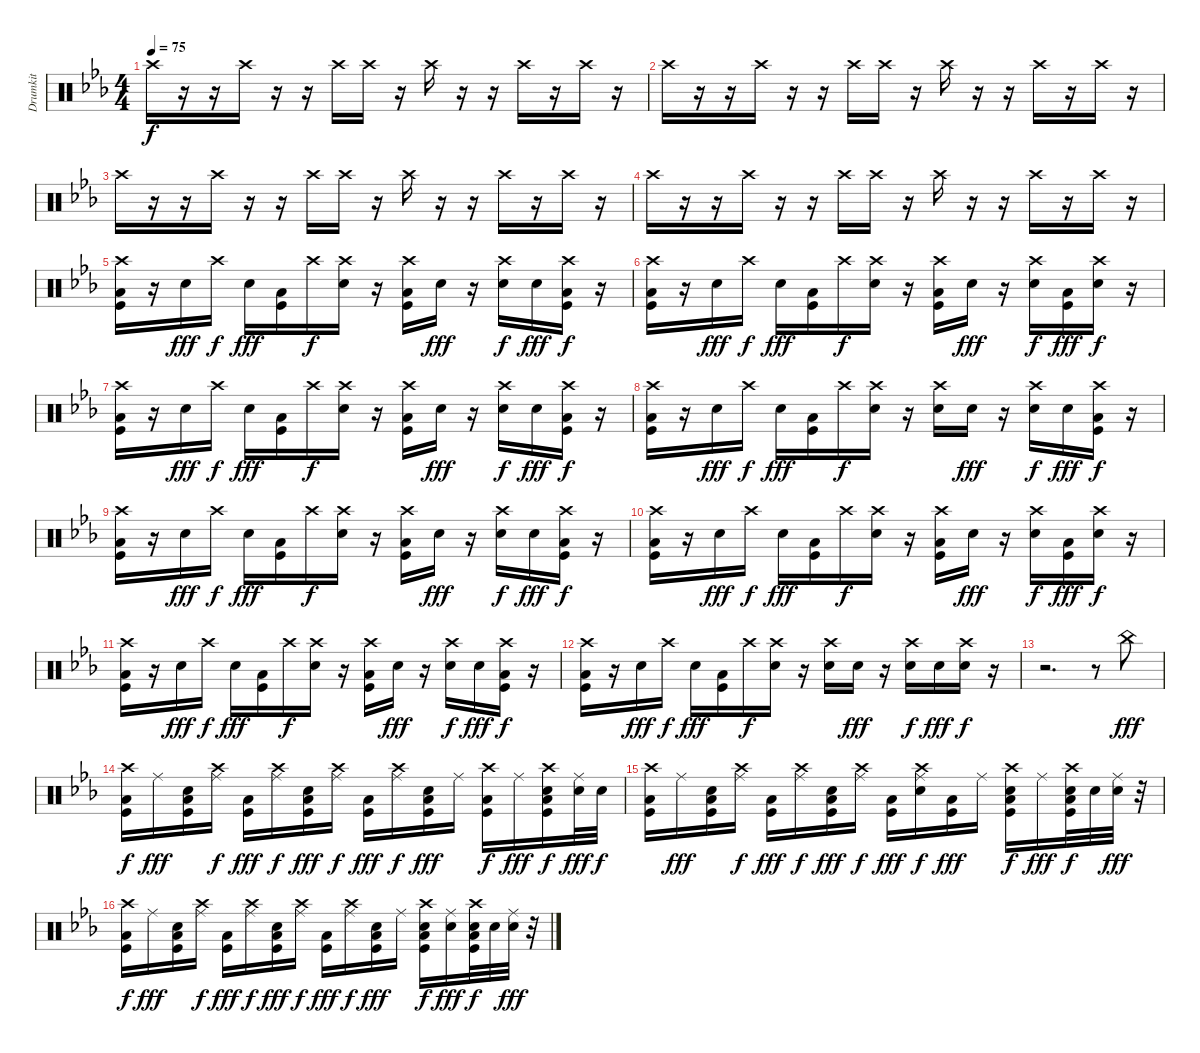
\track ("Drumkit" "Drumkit") {instrument percussion}
\staff {score}
\articulation defaults
\ts (4 4)
\tempo 75
\clef neutral
\ks eb "Crash high (hit)".16{dy f}
r.16 r.16 "Crash high (hit)".16 r.16 r.16 "Crash high (hit)".16 "Crash high (hit)".16 r.16 "Crash high (hit)".16 r.16 r.16 "Crash high (hit)".16 r.16 "Crash high (hit)".16 r.16 |
"Crash high (hit)".16 r.16 r.16 "Crash high (hit)".16 r.16 r.16 "Crash high (hit)".16 "Crash high (hit)".16 r.16 "Crash high (hit)".16 r.16 r.16 "Crash high (hit)".16 r.16 "Crash high (hit)".16 r.16 |
"Crash high (hit)".16 r.16 r.16 "Crash high (hit)".16 r.16 r.16 "Crash high (hit)".16 "Crash high (hit)".16 r.16 "Crash high (hit)".16 r.16 r.16 "Crash high (hit)".16 r.16 "Crash high (hit)".16 r.16 |
"Crash high (hit)".16 r.16 r.16 "Crash high (hit)".16 r.16 r.16 "Crash high (hit)".16 "Crash high (hit)".16 r.16 "Crash high (hit)".16 r.16 r.16 "Crash high (hit)".16 r.16 "Crash high (hit)".16 r.16 |
("Crash high (hit)" "Low Floor Tom (hit)" "Kick (hit)").16 r.16 "Snare (hit) 2".16{dy fff} "Crash high (hit)".16{dy f} "Snare (hit) 2".16{dy fff} ("Low Floor Tom (hit)" "Kick (hit)").16 "Crash high (hit)".16{dy f} ("Crash high (hit)" "Snare (hit) 2").16 r.16 ("Crash high (hit)" "Low Floor Tom (hit)" "Kick (hit)").16 "Snare (hit) 2".16{dy fff} r.16 ("Crash high (hit)" "Snare (hit) 2").16{dy f} "Snare (hit) 2".16{dy fff} ("Crash high (hit)" "Low Floor Tom (hit)" "Kick (hit)").16{dy f} r.16 |
("Crash high (hit)" "Low Floor Tom (hit)" "Kick (hit)").16 r.16 "Snare (hit) 2".16{dy fff} "Crash high (hit)".16{dy f} "Snare (hit) 2".16{dy fff} ("Low Floor Tom (hit)" "Kick (hit)").16 "Crash high (hit)".16{dy f} ("Crash high (hit)" "Snare (hit) 2").16 r.16 ("Crash high (hit)" "Low Floor Tom (hit)" "Kick (hit)").16 "Snare (hit) 2".16{dy fff} r.16 ("Crash high (hit)" "Snare (hit) 2").16{dy f} ("Low Floor Tom (hit)" "Kick (hit)").16{dy fff} ("Crash high (hit)" "Snare (hit) 2").16{dy f} r.16 |
("Crash high (hit)" "Low Floor Tom (hit)" "Kick (hit)").16 r.16 "Snare (hit) 2".16{dy fff} "Crash high (hit)".16{dy f} "Snare (hit) 2".16{dy fff} ("Low Floor Tom (hit)" "Kick (hit)").16 "Crash high (hit)".16{dy f} ("Crash high (hit)" "Snare (hit) 2").16 r.16 ("Crash high (hit)" "Low Floor Tom (hit)" "Kick (hit)").16 "Snare (hit) 2".16{dy fff} r.16 ("Crash high (hit)" "Snare (hit) 2").16{dy f} "Snare (hit) 2".16{dy fff} ("Crash high (hit)" "Low Floor Tom (hit)" "Kick (hit)").16{dy f} r.16 |
("Crash high (hit)" "Low Floor Tom (hit)" "Kick (hit)").16 r.16 "Snare (hit) 2".16{dy fff} "Crash high (hit)".16{dy f} "Snare (hit) 2".16{dy fff} ("Low Floor Tom (hit)" "Kick (hit)").16 "Crash high (hit)".16{dy f} ("Crash high (hit)" "Snare (hit) 2").16 r.16 ("Crash high (hit)" "Snare (hit) 2").16 "Snare (hit) 2".16{dy fff} r.16 ("Crash high (hit)" "Snare (hit) 2").16{dy f} "Snare (hit) 2".16{dy fff} ("Crash high (hit)" "Low Floor Tom (hit)" "Kick (hit)").16{dy f} r.16 |
("Crash high (hit)" "Low Floor Tom (hit)" "Kick (hit)").16 r.16 "Snare (hit) 2".16{dy fff} "Crash high (hit)".16{dy f} "Snare (hit) 2".16{dy fff} ("Low Floor Tom (hit)" "Kick (hit)").16 "Crash high (hit)".16{dy f} ("Crash high (hit)" "Snare (hit) 2").16 r.16 ("Crash high (hit)" "Low Floor Tom (hit)" "Kick (hit)").16 "Snare (hit) 2".16{dy fff} r.16 ("Crash high (hit)" "Snare (hit) 2").16{dy f} "Snare (hit) 2".16{dy fff} ("Crash high (hit)" "Low Floor Tom (hit)" "Kick (hit)").16{dy f} r.16 |
("Crash high (hit)" "Low Floor Tom (hit)" "Kick (hit)").16 r.16 "Snare (hit) 2".16{dy fff} "Crash high (hit)".16{dy f} "Snare (hit) 2".16{dy fff} ("Low Floor Tom (hit)" "Kick (hit)").16 "Crash high (hit)".16{dy f} ("Crash high (hit)" "Snare (hit) 2").16 r.16 ("Crash high (hit)" "Low Floor Tom (hit)" "Kick (hit)").16 "Snare (hit) 2".16{dy fff} r.16 ("Crash high (hit)" "Snare (hit) 2").16{dy f} ("Low Floor Tom (hit)" "Kick (hit)").16{dy fff} ("Crash high (hit)" "Snare (hit) 2").16{dy f} r.16 |
("Crash high (hit)" "Low Floor Tom (hit)" "Kick (hit)").16 r.16 "Snare (hit) 2".16{dy fff} "Crash high (hit)".16{dy f} "Snare (hit) 2".16{dy fff} ("Low Floor Tom (hit)" "Kick (hit)").16 "Crash high (hit)".16{dy f} ("Crash high (hit)" "Snare (hit) 2").16 r.16 ("Crash high (hit)" "Low Floor Tom (hit)" "Kick (hit)").16 "Snare (hit) 2".16{dy fff} r.16 ("Crash high (hit)" "Snare (hit) 2").16{dy f} "Snare (hit) 2".16{dy fff} ("Crash high (hit)" "Low Floor Tom (hit)" "Kick (hit)").16{dy f} r.16 |
("Crash high (hit)" "Low Floor Tom (hit)" "Kick (hit)").16 r.16 "Snare (hit) 2".16{dy fff} "Crash high (hit)".16{dy f} "Snare (hit) 2".16{dy fff} ("Low Floor Tom (hit)" "Kick (hit)").16 "Crash high (hit)".16{dy f} ("Crash high (hit)" "Snare (hit) 2").16 r.16 ("Crash high (hit)" "Snare (hit) 2").16 "Snare (hit) 2".16{dy fff} r.16 ("Crash high (hit)" "Snare (hit) 2").16{dy f} "Snare (hit) 2".16{dy fff} ("Crash high (hit)" "Snare (hit) 2").16{dy f} r.16 |
r.2{d} r.8 "China (hit)".8{dy fff} |
("Crash high (hit)" "Low Floor Tom (hit)" "Kick (hit)").16{dy f} "Ride (middle)".16{dy fff} ("Low Floor Tom (hit)" "Snare (hit) 2" "Kick (hit)").16 ("Crash high (hit)" "Ride (middle)").16{dy f} ("Low Floor Tom (hit)" "Kick (hit)").16{dy fff} ("Crash high (hit)" "Ride (middle)").16{dy f} ("Low Floor Tom (hit)" "Snare (hit) 2" "Kick (hit)").16{dy fff} ("Crash high (hit)" "Ride (middle)").16{dy f} ("Low Floor Tom (hit)" "Kick (hit)").16{dy fff} ("Crash high (hit)" "Ride (middle)").16{dy f} ("Low Floor Tom (hit)" "Snare (hit) 2" "Kick (hit)").16{dy fff} "Ride (middle)".16 ("Crash high (hit)" "Low Floor Tom (hit)" "Kick (hit)").16{dy f} "Ride (middle)".16{dy fff} ("Crash high (hit)" "Low Floor Tom (hit)" "Snare (hit) 2" "Kick (hit)").16{dy f} ("Ride (middle)" "Snare (hit) 2").32{dy fff} "Snare (hit) 2".32{dy f} |
("Crash high (hit)" "Low Floor Tom (hit)" "Kick (hit)").16 "Ride (middle)".16{dy fff} ("Low Floor Tom (hit)" "Snare (hit) 2" "Kick (hit)").16 ("Crash high (hit)" "Ride (middle)").16{dy f} ("Low Floor Tom (hit)" "Kick (hit)").16{dy fff} ("Crash high (hit)" "Ride (middle)").16{dy f} ("Low Floor Tom (hit)" "Snare (hit) 2" "Kick (hit)").16{dy fff} ("Crash high (hit)" "Ride (middle)").16{dy f} ("Low Floor Tom (hit)" "Kick (hit)").16{dy fff} ("Crash high (hit)" "Ride (middle)" "Snare (hit) 2").16{dy f} ("Low Floor Tom (hit)" "Kick (hit)").16{dy fff} "Ride (middle)".16 ("Crash high (hit)" "Low Floor Tom (hit)" "Snare (hit) 2" "Kick (hit)").16{dy f} "Ride (middle)".16{dy fff} ("Crash high (hit)" "Low Floor Tom (hit)" "Snare (hit) 2" "Kick (hit)").32{dy f} "Snare (hit) 2".32 ("Ride (middle)" "Snare (hit) 2").32{dy fff} r.32 |
("Crash high (hit)" "Low Floor Tom (hit)" "Kick (hit)").16{dy f} "Ride (middle)".16{dy fff} ("Low Floor Tom (hit)" "Snare (hit) 2" "Kick (hit)").16 ("Crash high (hit)" "Ride (middle)").16{dy f} ("Low Floor Tom (hit)" "Kick (hit)").16{dy fff} ("Crash high (hit)" "Ride (middle)").16{dy f} ("Low Floor Tom (hit)" "Snare (hit) 2" "Kick (hit)").16{dy fff} ("Crash high (hit)" "Ride (middle)").16{dy f} ("Low Floor Tom (hit)" "Kick (hit)").16{dy fff} ("Crash high (hit)" "Ride (middle)").16{dy f} ("Low Floor Tom (hit)" "Snare (hit) 2" "Kick (hit)").16{dy fff} "Ride (middle)".16 ("Crash high (hit)" "Low Floor Tom (hit)" "Snare (hit) 2" "Kick (hit)").16{dy f} ("Ride (middle)" "Snare (hit) 2").16{dy fff} ("Crash high (hit)" "Low Floor Tom (hit)" "Snare (hit) 2" "Kick (hit)").32{dy f} "Snare (hit) 2".32 ("Ride (middle)" "Snare (hit) 2").32{dy fff} r.32
